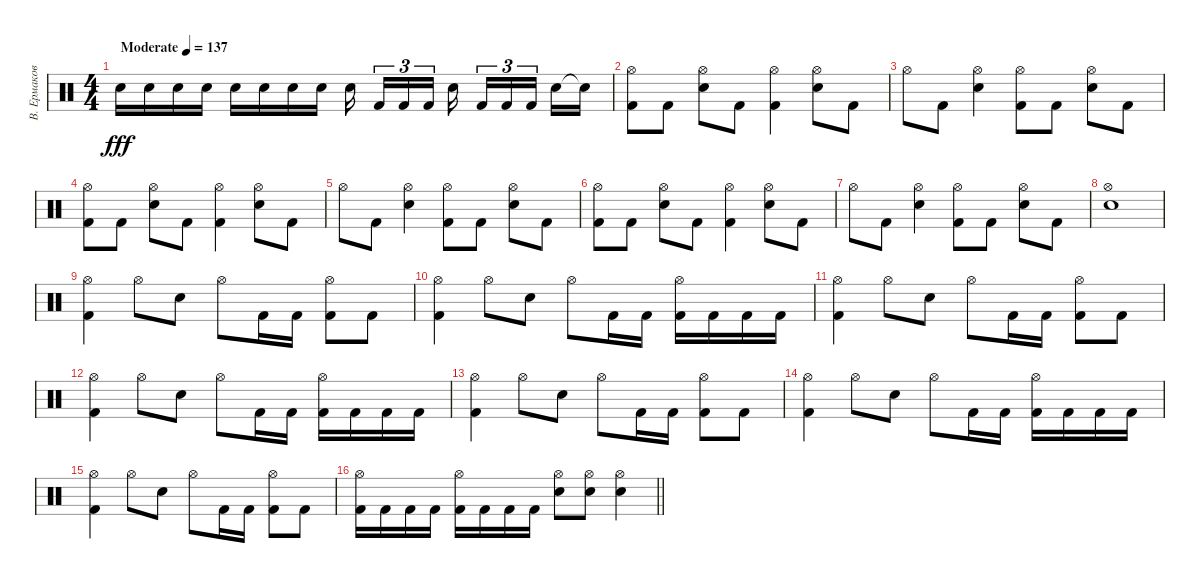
\track ("В. Ермаков" "В. Ермаков") {instrument percussion}
\staff {score}
\articulation defaults
\ts (4 4)
\tempo (137 "Moderate")
\clef neutral
\ks c "Snare (hit) 2".16{dy fff} "Snare (hit) 2".16 "Snare (hit) 2".16 "Snare (hit) 2".16 "Snare (hit) 2".16 "Snare (hit) 2".16 "Snare (hit) 2".16 "Snare (hit) 2".16 "Electric Snare (hit)".16{beam splitsecondary} "Kick (hit) 2".16{tu (3 2)} "Kick (hit) 2".16{tu (3 2)} "Kick (hit) 2".16{tu (3 2) beam splitsecondary} "Electric Snare (hit)".16 "Kick (hit) 2".16{tu (3 2)} "Kick (hit) 2".16{tu (3 2)} "Kick (hit) 2".16{tu (3 2) beam splitsecondary} "Snare (hit) 2".16 "Snare (hit)"{t}.16
|
("Kick (hit) 2" "Hi-Hat (open)").8 "Kick (hit) 2".8 ("Snare (hit) 2" "Hi-Hat (open)").8 "Kick (hit) 2".8 ("Kick (hit) 2" "Hi-Hat (open)").4 ("Snare (hit) 2" "Hi-Hat (open)").8 "Kick (hit) 2".8 |
"Hi-Hat (open)".8 "Kick (hit) 2".8 ("Hi-Hat (open)" "Snare (hit) 2").4 ("Hi-Hat (open)" "Kick (hit) 2").8 "Kick (hit) 2".8 ("Hi-Hat (open)" "Snare (hit) 2").8 "Kick (hit) 2".8 |
("Kick (hit) 2" "Hi-Hat (open)").8 "Kick (hit) 2".8 ("Snare (hit) 2" "Hi-Hat (open)").8 "Kick (hit) 2".8 ("Kick (hit) 2" "Hi-Hat (open)").4 ("Snare (hit) 2" "Hi-Hat (open)").8 "Kick (hit) 2".8 |
"Hi-Hat (open)".8 "Kick (hit) 2".8 ("Hi-Hat (open)" "Snare (hit) 2").4 ("Hi-Hat (open)" "Kick (hit) 2").8 "Kick (hit) 2".8 ("Hi-Hat (open)" "Snare (hit) 2").8 "Kick (hit) 2".8 |
("Kick (hit) 2" "Hi-Hat (open)").8 "Kick (hit) 2".8 ("Snare (hit) 2" "Hi-Hat (open)").8 "Kick (hit) 2".8 ("Kick (hit) 2" "Hi-Hat (open)").4 ("Snare (hit) 2" "Hi-Hat (open)").8 "Kick (hit) 2".8 |
"Hi-Hat (open)".8 "Kick (hit) 2".8 ("Hi-Hat (open)" "Snare (hit) 2").4 ("Hi-Hat (open)" "Kick (hit) 2").8 "Kick (hit) 2".8 ("Hi-Hat (open)" "Snare (hit) 2").8 "Kick (hit) 2".8 |
("Hi-Hat (open)" "Snare (hit) 2").1 |
("Hi-Hat (open)" "Kick (hit) 2").4 "Hi-Hat (open)".8 "Snare (hit) 2".8 "Hi-Hat (open)".8 "Kick (hit) 2".16 "Kick (hit) 2".16 ("Hi-Hat (open)" "Kick (hit) 2").8 "Kick (hit) 2".8 |
("Hi-Hat (open)" "Kick (hit) 2").4 "Hi-Hat (open)".8 "Snare (hit) 2".8 "Hi-Hat (open)".8 "Kick (hit) 2".16 "Kick (hit) 2".16 ("Hi-Hat (open)" "Kick (hit) 2").16 "Kick (hit) 2".16 "Kick (hit) 2".16 "Kick (hit) 2".16 |
("Hi-Hat (open)" "Kick (hit) 2").4 "Hi-Hat (open)".8 "Snare (hit) 2".8 "Hi-Hat (open)".8 "Kick (hit) 2".16 "Kick (hit) 2".16 ("Hi-Hat (open)" "Kick (hit) 2").8 "Kick (hit) 2".8 |
("Hi-Hat (open)" "Kick (hit) 2").4 "Hi-Hat (open)".8 "Snare (hit) 2".8 "Hi-Hat (open)".8 "Kick (hit) 2".16 "Kick (hit) 2".16 ("Hi-Hat (open)" "Kick (hit) 2").16 "Kick (hit) 2".16 "Kick (hit) 2".16 "Kick (hit) 2".16 |
("Hi-Hat (open)" "Kick (hit) 2").4 "Hi-Hat (open)".8 "Snare (hit) 2".8 "Hi-Hat (open)".8 "Kick (hit) 2".16 "Kick (hit) 2".16 ("Hi-Hat (open)" "Kick (hit) 2").8 "Kick (hit) 2".8 |
("Hi-Hat (open)" "Kick (hit) 2").4 "Hi-Hat (open)".8 "Snare (hit) 2".8 "Hi-Hat (open)".8 "Kick (hit) 2".16 "Kick (hit) 2".16 ("Hi-Hat (open)" "Kick (hit) 2").16 "Kick (hit) 2".16 "Kick (hit) 2".16 "Kick (hit) 2".16 |
("Hi-Hat (open)" "Kick (hit) 2").4 "Hi-Hat (open)".8 "Snare (hit) 2".8 "Hi-Hat (open)".8 "Kick (hit) 2".16 "Kick (hit) 2".16 ("Hi-Hat (open)" "Kick (hit) 2").8 "Kick (hit) 2".8 |
\barLineRight lightlight
("Hi-Hat (open)" "Kick (hit) 2").16 "Kick (hit) 2".16 "Kick (hit) 2".16 "Kick (hit) 2".16 ("Hi-Hat (open)" "Kick (hit) 2").16 "Kick (hit) 2".16 "Kick (hit) 2".16 "Kick (hit) 2".16 ("Hi-Hat (open)" "Snare (hit) 2").8 ("Hi-Hat (open)" "Snare (hit) 2").8 ("Hi-Hat (open)" "Snare (hit) 2").4
